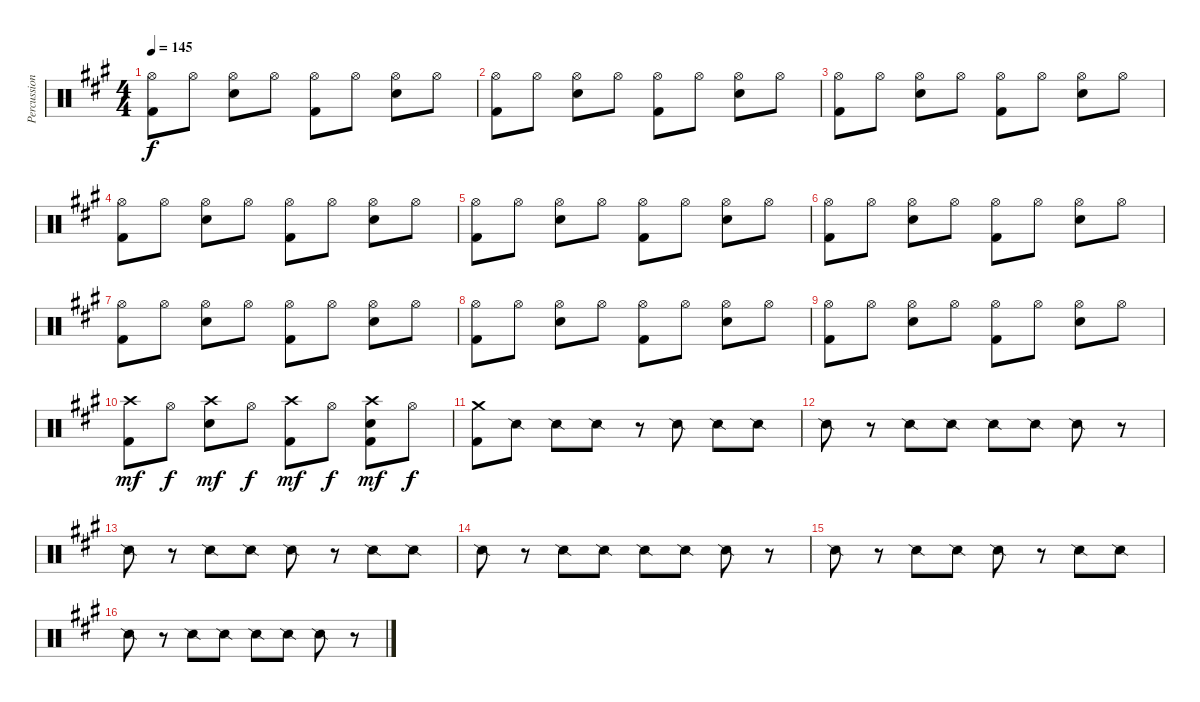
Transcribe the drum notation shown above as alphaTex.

\track ("Percussion" "Percussion") {instrument percussion}
\staff {score}
\articulation defaults
\ts (4 4)
\tempo 145
\clef neutral
\ks a
("Hi-Hat (open)" "Kick (hit) 2").8{dy f} "Hi-Hat (open)".8 ("Hi-Hat (open)" "Snare (hit) 2").8 "Hi-Hat (open)".8 ("Hi-Hat (open)" "Kick (hit) 2").8 "Hi-Hat (open)".8 ("Hi-Hat (open)" "Snare (hit) 2").8 "Hi-Hat (open)".8 |
("Hi-Hat (open)" "Kick (hit) 2").8 "Hi-Hat (open)".8 ("Hi-Hat (open)" "Snare (hit) 2").8 "Hi-Hat (open)".8 ("Hi-Hat (open)" "Kick (hit) 2").8 "Hi-Hat (open)".8 ("Hi-Hat (open)" "Snare (hit) 2").8 "Hi-Hat (open)".8 |
("Hi-Hat (open)" "Kick (hit) 2").8 "Hi-Hat (open)".8 ("Hi-Hat (open)" "Snare (hit) 2").8 "Hi-Hat (open)".8 ("Hi-Hat (open)" "Kick (hit) 2").8 "Hi-Hat (open)".8 ("Hi-Hat (open)" "Snare (hit) 2").8 "Hi-Hat (open)".8 |
("Hi-Hat (open)" "Kick (hit) 2").8 "Hi-Hat (open)".8 ("Hi-Hat (open)" "Snare (hit) 2").8 "Hi-Hat (open)".8 ("Hi-Hat (open)" "Kick (hit) 2").8 "Hi-Hat (open)".8 ("Hi-Hat (open)" "Snare (hit) 2").8 "Hi-Hat (open)".8 |
("Hi-Hat (open)" "Kick (hit) 2").8 "Hi-Hat (open)".8 ("Hi-Hat (open)" "Snare (hit) 2").8 "Hi-Hat (open)".8 ("Hi-Hat (open)" "Kick (hit) 2").8 "Hi-Hat (open)".8 ("Hi-Hat (open)" "Snare (hit) 2").8 "Hi-Hat (open)".8 |
("Hi-Hat (open)" "Kick (hit) 2").8 "Hi-Hat (open)".8 ("Hi-Hat (open)" "Snare (hit) 2").8 "Hi-Hat (open)".8 ("Hi-Hat (open)" "Kick (hit) 2").8 "Hi-Hat (open)".8 ("Hi-Hat (open)" "Snare (hit) 2").8 "Hi-Hat (open)".8 |
("Hi-Hat (open)" "Kick (hit) 2").8 "Hi-Hat (open)".8 ("Hi-Hat (open)" "Snare (hit) 2").8 "Hi-Hat (open)".8 ("Hi-Hat (open)" "Kick (hit) 2").8 "Hi-Hat (open)".8 ("Hi-Hat (open)" "Snare (hit) 2").8 "Hi-Hat (open)".8 |
("Hi-Hat (open)" "Kick (hit) 2").8 "Hi-Hat (open)".8 ("Hi-Hat (open)" "Snare (hit) 2").8 "Hi-Hat (open)".8 ("Hi-Hat (open)" "Kick (hit) 2").8 "Hi-Hat (open)".8 ("Hi-Hat (open)" "Snare (hit) 2").8 "Hi-Hat (open)".8 |
("Hi-Hat (open)" "Kick (hit) 2").8 "Hi-Hat (open)".8 ("Hi-Hat (open)" "Snare (hit) 2").8 "Hi-Hat (open)".8 ("Hi-Hat (open)" "Kick (hit) 2").8 "Hi-Hat (open)".8 ("Hi-Hat (open)" "Snare (hit) 2").8 "Hi-Hat (open)".8 |
("Crash high (hit)" "Kick (hit) 2").8{dy mf} "Hi-Hat (open)".8{dy f} ("Crash high (hit)" "Snare (hit) 2").8{dy mf} "Hi-Hat (open)".8{dy f} ("Crash high (hit)" "Kick (hit) 2").8{dy mf} "Hi-Hat (open)".8{dy f} ("Crash high (hit)" "Snare (hit) 2" "Kick (hit) 2").8{dy mf} "Hi-Hat (open)".8{dy f} |
("Crash medium (hit)" "Kick (hit) 2").8 "Snare (side stick) 2".8{balance 16} "Snare (side stick) 2".8{volume 8 balance 0} "Snare (side stick) 2".8{balance 16} r.8 "Snare (side stick) 2".8{balance 0} "Snare (side stick) 2".8{balance 16} "Snare (side stick) 2".8{balance 0} |
"Snare (side stick) 2".8{balance 16} r.8 "Snare (side stick) 2".8{balance 0} "Snare (side stick) 2".8{balance 16} "Snare (side stick) 2".8{balance 0} "Snare (side stick) 2".8{balance 16} "Snare (side stick) 2".8{balance 0} r.8 |
"Snare (side stick) 2".8{balance 16} r.8 "Snare (side stick) 2".8{balance 0} "Snare (side stick) 2".8{balance 16} "Snare (side stick) 2".8{balance 0} r.8 "Snare (side stick) 2".8{balance 0} "Snare (side stick) 2".8{balance 16} |
"Snare (side stick) 2".8{balance 16} r.8 "Snare (side stick) 2".8{balance 0} "Snare (side stick) 2".8{balance 16} "Snare (side stick) 2".8{balance 0} "Snare (side stick) 2".8{balance 16} "Snare (side stick) 2".8{balance 0} r.8 |
"Snare (side stick) 2".8{balance 16} r.8 "Snare (side stick) 2".8{balance 0} "Snare (side stick) 2".8{balance 16} "Snare (side stick) 2".8{balance 0} r.8 "Snare (side stick) 2".8{balance 0} "Snare (side stick) 2".8{balance 16} |
"Snare (side stick) 2".8{balance 16} r.8 "Snare (side stick) 2".8{balance 0} "Snare (side stick) 2".8{balance 16} "Snare (side stick) 2".8{balance 0} "Snare (side stick) 2".8{balance 16} "Snare (side stick) 2".8{balance 0} r.8
